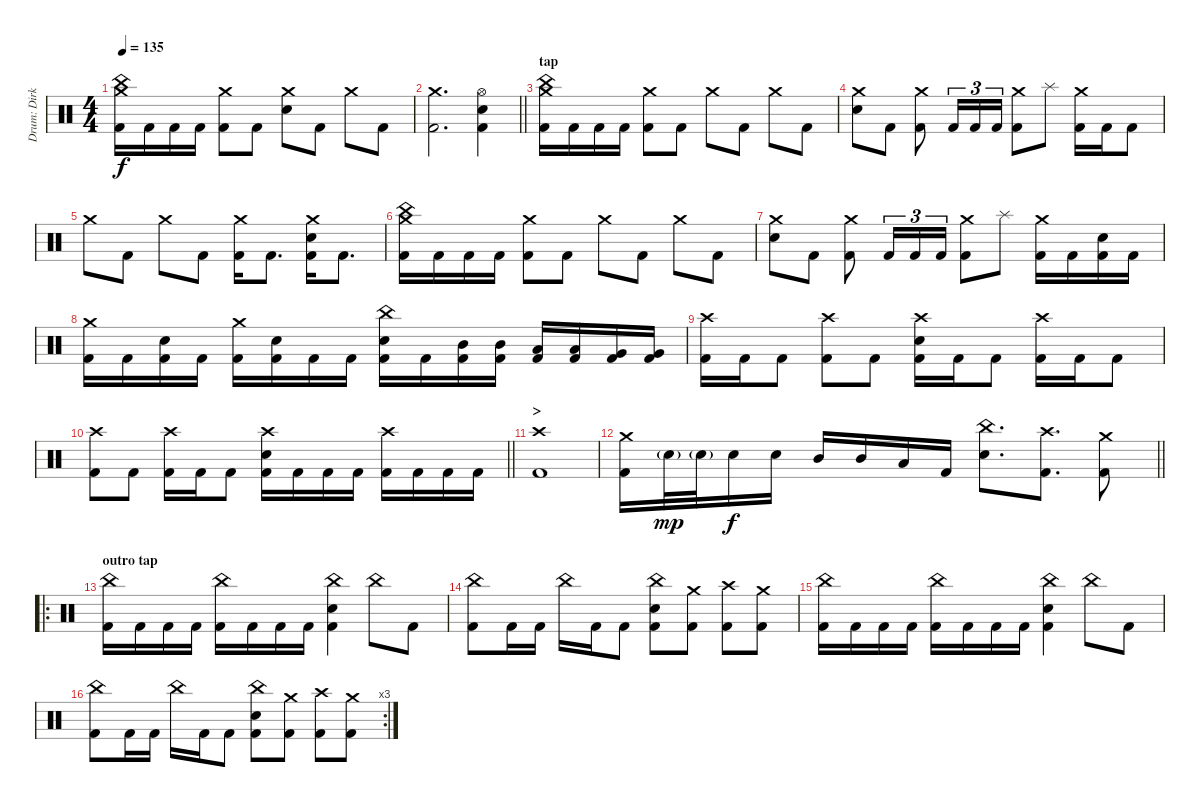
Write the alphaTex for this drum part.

\track ("Drum: Dirk" "Drum: Dirk") {instrument percussion}
\staff {score}
\articulation defaults
\ts (4 4)
\tempo 135
\clef neutral
\ks c
("China (hit)" "Crash medium (hit)" "Kick (hit) 2").16{dy f} "Kick (hit) 2".16 "Kick (hit) 2".16 "Kick (hit) 2".16 ("Crash medium (hit)" "Kick (hit) 2").8 "Kick (hit) 2".8 ("Crash medium (hit)" "Electric Snare (hit)").8 "Kick (hit) 2".8 "Crash medium (hit)".8 "Kick (hit) 2".8 |
\barLineRight lightlight
("Crash medium (hit)" "Kick (hit) 2").2{d} ("Hi-Hat (open)" "Electric Snare (hit)" "Kick (hit) 2").4 |
\section ("" "tap")
("China (hit)" "Crash medium (hit)" "Kick (hit) 2").16 "Kick (hit) 2".16 "Kick (hit) 2".16 "Kick (hit) 2".16 ("Crash medium (hit)" "Kick (hit) 2").8 "Kick (hit) 2".8 "Crash medium (hit)".8 "Kick (hit) 2".8 "Crash medium (hit)".8 "Kick (hit) 2".8 |
("Crash medium (hit)" "Electric Snare (hit)").8 "Kick (hit) 2".8 ("Crash medium (hit)" "Kick (hit) 2").8 "Kick (hit) 2".16{tu (3 2)} "Kick (hit) 2".16{tu (3 2)} "Kick (hit) 2".16{tu (3 2)} ("Crash medium (hit)" "Kick (hit) 2").8 "Splash (hit)".8 ("Crash medium (hit)" "Kick (hit) 2").16 "Kick (hit) 2".16 "Kick (hit) 2".8 |
"Crash medium (hit)".8 "Kick (hit) 2".8 "Crash medium (hit)".8 "Kick (hit) 2".8 ("Crash medium (hit)" "Kick (hit) 2").16 "Kick (hit) 2".8{d} ("Crash medium (hit)" "Electric Snare (hit)" "Kick (hit) 2").16 "Kick (hit) 2".8{d} |
("China (hit)" "Crash medium (hit)" "Kick (hit) 2").16 "Kick (hit) 2".16 "Kick (hit) 2".16 "Kick (hit) 2".16 ("Crash medium (hit)" "Kick (hit) 2").8 "Kick (hit) 2".8 "Crash medium (hit)".8 "Kick (hit) 2".8 "Crash medium (hit)".8 "Kick (hit) 2".8 |
("Crash medium (hit)" "Electric Snare (hit)").8 "Kick (hit) 2".8 ("Crash medium (hit)" "Kick (hit) 2").8 "Kick (hit) 2".16{tu (3 2)} "Kick (hit) 2".16{tu (3 2)} "Kick (hit) 2".16{tu (3 2)} ("Crash medium (hit)" "Kick (hit) 2").8 "Splash (hit)".8 ("Crash medium (hit)" "Kick (hit) 2").16 "Kick (hit) 2".16 ("Electric Snare (hit)" "Kick (hit) 2").16 "Kick (hit) 2".16 |
("Crash medium (hit)" "Kick (hit) 2").16 "Kick (hit) 2".16 ("Electric Snare (hit)" "Kick (hit) 2").16 "Kick (hit) 2".16 ("Crash medium (hit)" "Kick (hit) 2").16 ("Electric Snare (hit)" "Kick (hit) 2").16 "Kick (hit) 2".16 "Kick (hit) 2".16 ("China (hit)" "Electric Snare (hit)" "Kick (hit) 2").16 "Kick (hit) 2".16 ("Mid Tom (hit)" "Kick (hit) 2").16 ("Mid Tom (hit)" "Kick (hit) 2").16 ("Low Tom (hit)" "Kick (hit) 2").16 ("Low Tom (hit)" "Kick (hit) 2").16 ("Very Low Tom (hit)" "Kick (hit) 2").16 ("Very Low Tom (hit)" "Kick (hit) 2").16 |
("Crash high (hit)" "Kick (hit) 2").16 "Kick (hit) 2".16 "Kick (hit) 2".8 ("Crash high (hit)" "Kick (hit) 2").8 "Kick (hit) 2".8 ("Crash high (hit)" "Electric Snare (hit)" "Kick (hit) 2").16 "Kick (hit) 2".16 "Kick (hit) 2".8 ("Crash high (hit)" "Kick (hit) 2").16 "Kick (hit) 2".16 "Kick (hit) 2".8 |
\barLineRight lightlight
("Crash high (hit)" "Kick (hit) 2").8 "Kick (hit) 2".8 ("Crash high (hit)" "Kick (hit) 2").16 "Kick (hit) 2".16 "Kick (hit) 2".8 ("Crash high (hit)" "Electric Snare (hit)" "Kick (hit) 2").16 "Kick (hit) 2".16 "Kick (hit) 2".16 "Kick (hit) 2".16 ("Crash high (hit)" "Kick (hit) 2").16 "Kick (hit) 2".16 "Kick (hit) 2".16 "Kick (hit) 2".16 |
\section ("" ">")
("Crash high (hit)" "Kick (hit) 2").1 |
\barLineRight lightlight
("Crash medium (hit)" "Kick (hit) 2").16 "Electric Snare (hit)"{g}.32{dy mp} "Electric Snare (hit)"{g}.32 "Electric Snare (hit)".16{dy f} "Electric Snare (hit)".16 "Mid Tom (hit)".16 "Mid Tom (hit)".16 "Low Tom (hit)".16 "Kick (hit) 2".16 ("China (hit)" "Electric Snare (hit)").8{d} ("Crash high (hit)" "Kick (hit) 2").8{d} ("Crash medium (hit)" "Kick (hit) 2").8 |
\ro
\section ("" "outro tap")
("China (hit)" "Kick (hit) 2").16 "Kick (hit) 2".16 "Kick (hit) 2".16 "Kick (hit) 2".16 ("China (hit)" "Kick (hit) 2").16 "Kick (hit) 2".16 "Kick (hit) 2".16 "Kick (hit) 2".16 ("China (hit)" "Electric Snare (hit)" "Kick (hit) 2").4 "China (hit)".8 "Kick (hit) 2".8 |
("China (hit)" "Kick (hit) 2").8 "Kick (hit) 2".16 "Kick (hit) 2".16 "China (hit)".16 "Kick (hit) 2".16 "Kick (hit) 2".8 ("China (hit)" "Electric Snare (hit)" "Kick (hit) 2").8 ("Crash medium (hit)" "Kick (hit) 2").8 ("Crash high (hit)" "Kick (hit) 2").8 ("Crash medium (hit)" "Kick (hit) 2").8 |
("China (hit)" "Kick (hit) 2").16 "Kick (hit) 2".16 "Kick (hit) 2".16 "Kick (hit) 2".16 ("China (hit)" "Kick (hit) 2").16 "Kick (hit) 2".16 "Kick (hit) 2".16 "Kick (hit) 2".16 ("China (hit)" "Electric Snare (hit)" "Kick (hit) 2").4 "China (hit)".8 "Kick (hit) 2".8 |
\rc 3
("China (hit)" "Kick (hit) 2").8 "Kick (hit) 2".16 "Kick (hit) 2".16 "China (hit)".16 "Kick (hit) 2".16 "Kick (hit) 2".8 ("China (hit)" "Electric Snare (hit)" "Kick (hit) 2").8 ("Crash medium (hit)" "Kick (hit) 2").8 ("Crash high (hit)" "Kick (hit) 2").8 ("Crash medium (hit)" "Kick (hit) 2").8
